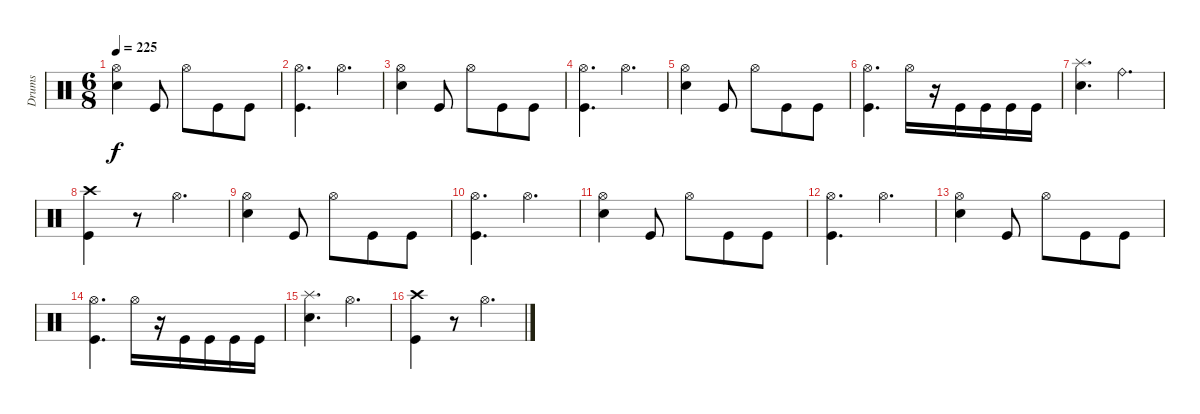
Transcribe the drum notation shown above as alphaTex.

\track ("Drums" "Drums") {instrument percussion}
\staff {score}
\articulation defaults
\ts (6 8)
\tempo 225
\clef neutral
\ks c
("Snare (hit) 2" "Hi-Hat (open)").4{dy f} "Kick (hit)".8 "Hi-Hat (open)".8 "Kick (hit)".8 "Kick (hit)".8 |
("Kick (hit)" "Hi-Hat (open)").4{d} "Hi-Hat (open)".4{d} |
("Snare (hit) 2" "Hi-Hat (open)").4 "Kick (hit)".8 "Hi-Hat (open)".8 "Kick (hit)".8 "Kick (hit)".8 |
("Kick (hit)" "Hi-Hat (open)").4{d} "Hi-Hat (open)".4{d} |
("Snare (hit) 2" "Hi-Hat (open)").4 "Kick (hit)".8 "Hi-Hat (open)".8 "Kick (hit)".8 "Kick (hit)".8 |
("Kick (hit)" "Hi-Hat (open)").4{d} "Hi-Hat (open)".16 r.16 "Kick (hit)".16 "Kick (hit)".16 "Kick (hit)".16 "Kick (hit)".16 |
("Snare (hit) 2" "Splash (hit)").4{d} "Ride (bell)".4{d} |
("Kick (hit)" "Crash high (hit)").4 r.8 "Hi-Hat (open)".4{d} |
("Snare (hit) 2" "Hi-Hat (open)").4 "Kick (hit)".8 "Hi-Hat (open)".8 "Kick (hit)".8 "Kick (hit)".8 |
("Kick (hit)" "Hi-Hat (open)").4{d} "Hi-Hat (open)".4{d} |
("Snare (hit) 2" "Hi-Hat (open)").4 "Kick (hit)".8 "Hi-Hat (open)".8 "Kick (hit)".8 "Kick (hit)".8 |
("Kick (hit)" "Hi-Hat (open)").4{d} "Hi-Hat (open)".4{d} |
("Snare (hit) 2" "Hi-Hat (open)").4 "Kick (hit)".8 "Hi-Hat (open)".8 "Kick (hit)".8 "Kick (hit)".8 |
("Kick (hit)" "Hi-Hat (open)").4{d} "Hi-Hat (open)".16 r.16 "Kick (hit)".16 "Kick (hit)".16 "Kick (hit)".16 "Kick (hit)".16 |
("Snare (hit) 2" "Splash (hit)").4{d} "Hi-Hat (open)".4{d} |
("Kick (hit)" "Crash high (hit)").4 r.8 "Hi-Hat (open)".4{d}
